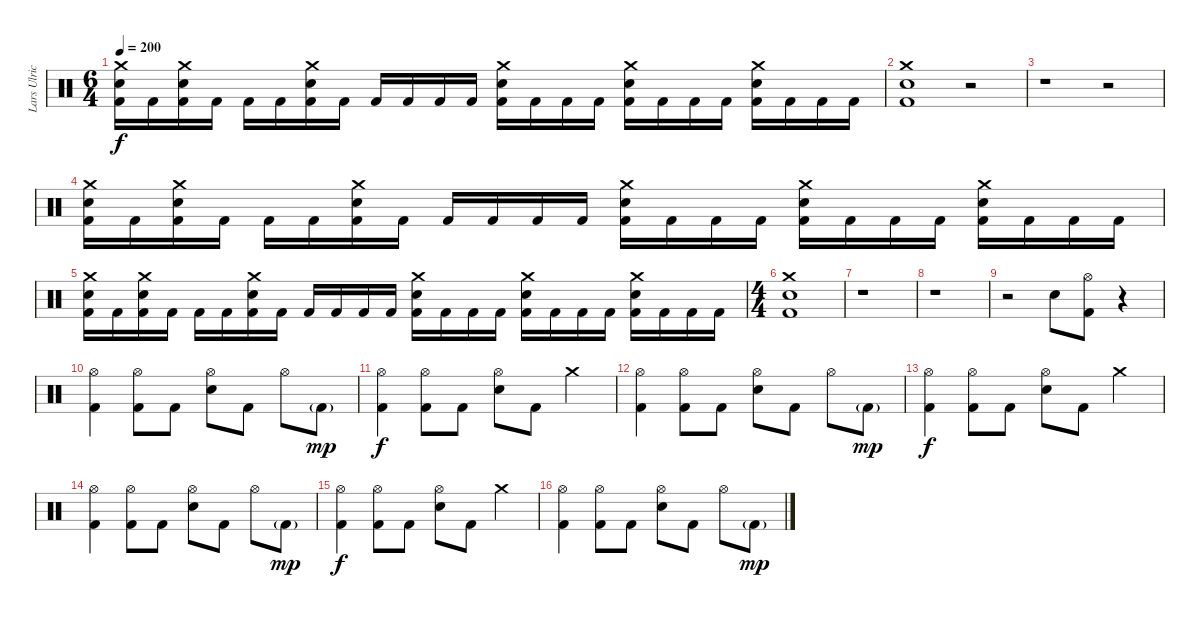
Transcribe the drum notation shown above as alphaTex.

\track ("Lars Ulrich" "Lars Ulric") {instrument percussion}
\staff {score}
\articulation defaults
\ts (6 4)
\tempo 200
\clef neutral
\ks c
("Crash medium (hit)" "Electric Snare (hit)" "Kick (hit) 2").16{dy f} "Kick (hit) 2".16 ("Crash medium (hit)" "Electric Snare (hit)" "Kick (hit) 2").16 "Kick (hit) 2".16 "Kick (hit) 2".16 "Kick (hit) 2".16 ("Crash medium (hit)" "Electric Snare (hit)" "Kick (hit) 2").16 "Kick (hit) 2".16 "Kick (hit) 2".16 "Kick (hit) 2".16 "Kick (hit) 2".16 "Kick (hit) 2".16 ("Crash medium (hit)" "Electric Snare (hit)" "Kick (hit) 2").16 "Kick (hit) 2".16 "Kick (hit) 2".16 "Kick (hit) 2".16 ("Crash medium (hit)" "Electric Snare (hit)" "Kick (hit) 2").16 "Kick (hit) 2".16 "Kick (hit) 2".16 "Kick (hit) 2".16 ("Crash medium (hit)" "Electric Snare (hit)" "Kick (hit) 2").16 "Kick (hit) 2".16 "Kick (hit) 2".16 "Kick (hit) 2".16 |
("Crash medium (hit)" "Electric Snare (hit)" "Kick (hit) 2").1 r.2 |
r.1 r.2 |
("Crash medium (hit)" "Electric Snare (hit)" "Kick (hit) 2").16 "Kick (hit) 2".16 ("Crash medium (hit)" "Electric Snare (hit)" "Kick (hit) 2").16 "Kick (hit) 2".16 "Kick (hit) 2".16 "Kick (hit) 2".16 ("Crash medium (hit)" "Electric Snare (hit)" "Kick (hit) 2").16 "Kick (hit) 2".16 "Kick (hit) 2".16 "Kick (hit) 2".16 "Kick (hit) 2".16 "Kick (hit) 2".16 ("Crash medium (hit)" "Electric Snare (hit)" "Kick (hit) 2").16 "Kick (hit) 2".16 "Kick (hit) 2".16 "Kick (hit) 2".16 ("Crash medium (hit)" "Electric Snare (hit)" "Kick (hit) 2").16 "Kick (hit) 2".16 "Kick (hit) 2".16 "Kick (hit) 2".16 ("Crash medium (hit)" "Electric Snare (hit)" "Kick (hit) 2").16 "Kick (hit) 2".16 "Kick (hit) 2".16 "Kick (hit) 2".16 |
("Crash medium (hit)" "Electric Snare (hit)" "Kick (hit) 2").16 "Kick (hit) 2".16 ("Crash medium (hit)" "Electric Snare (hit)" "Kick (hit) 2").16 "Kick (hit) 2".16 "Kick (hit) 2".16 "Kick (hit) 2".16 ("Crash medium (hit)" "Electric Snare (hit)" "Kick (hit) 2").16 "Kick (hit) 2".16 "Kick (hit) 2".16 "Kick (hit) 2".16 "Kick (hit) 2".16 "Kick (hit) 2".16 ("Crash medium (hit)" "Electric Snare (hit)" "Kick (hit) 2").16 "Kick (hit) 2".16 "Kick (hit) 2".16 "Kick (hit) 2".16 ("Crash medium (hit)" "Electric Snare (hit)" "Kick (hit) 2").16 "Kick (hit) 2".16 "Kick (hit) 2".16 "Kick (hit) 2".16 ("Crash medium (hit)" "Electric Snare (hit)" "Kick (hit) 2").16 "Kick (hit) 2".16 "Kick (hit) 2".16 "Kick (hit) 2".16 |
\ts (4 4)
("Crash medium (hit)" "Electric Snare (hit)" "Kick (hit) 2").1 |
r.1 |
r.1 |
r.2 "Electric Snare (hit)".8 ("Hi-Hat (open)" "Kick (hit) 2").8 r.4 |
("Hi-Hat (open)" "Kick (hit) 2").4 ("Hi-Hat (open)" "Kick (hit) 2").8 "Kick (hit) 2".8 ("Hi-Hat (open)" "Electric Snare (hit)").8 "Kick (hit) 2".8 "Hi-Hat (open)".8 "Kick (hit) 2"{g}.8{dy mp} |
("Hi-Hat (open)" "Kick (hit) 2").4{dy f} ("Hi-Hat (open)" "Kick (hit) 2").8 "Kick (hit) 2".8 ("Hi-Hat (open)" "Electric Snare (hit)").8 "Kick (hit) 2".8 "Crash medium (hit)".4 |
("Hi-Hat (open)" "Kick (hit) 2").4 ("Hi-Hat (open)" "Kick (hit) 2").8 "Kick (hit) 2".8 ("Hi-Hat (open)" "Electric Snare (hit)").8 "Kick (hit) 2".8 "Hi-Hat (open)".8 "Kick (hit) 2"{g}.8{dy mp} |
("Hi-Hat (open)" "Kick (hit) 2").4{dy f} ("Hi-Hat (open)" "Kick (hit) 2").8 "Kick (hit) 2".8 ("Hi-Hat (open)" "Electric Snare (hit)").8 "Kick (hit) 2".8 "Crash medium (hit)".4 |
("Hi-Hat (open)" "Kick (hit) 2").4 ("Hi-Hat (open)" "Kick (hit) 2").8 "Kick (hit) 2".8 ("Hi-Hat (open)" "Electric Snare (hit)").8 "Kick (hit) 2".8 "Hi-Hat (open)".8 "Kick (hit) 2"{g}.8{dy mp} |
("Hi-Hat (open)" "Kick (hit) 2").4{dy f} ("Hi-Hat (open)" "Kick (hit) 2").8 "Kick (hit) 2".8 ("Hi-Hat (open)" "Electric Snare (hit)").8 "Kick (hit) 2".8 "Crash medium (hit)".4 |
("Hi-Hat (open)" "Kick (hit) 2").4 ("Hi-Hat (open)" "Kick (hit) 2").8 "Kick (hit) 2".8 ("Hi-Hat (open)" "Electric Snare (hit)").8 "Kick (hit) 2".8 "Hi-Hat (open)".8 "Kick (hit) 2"{g}.8{dy mp}
